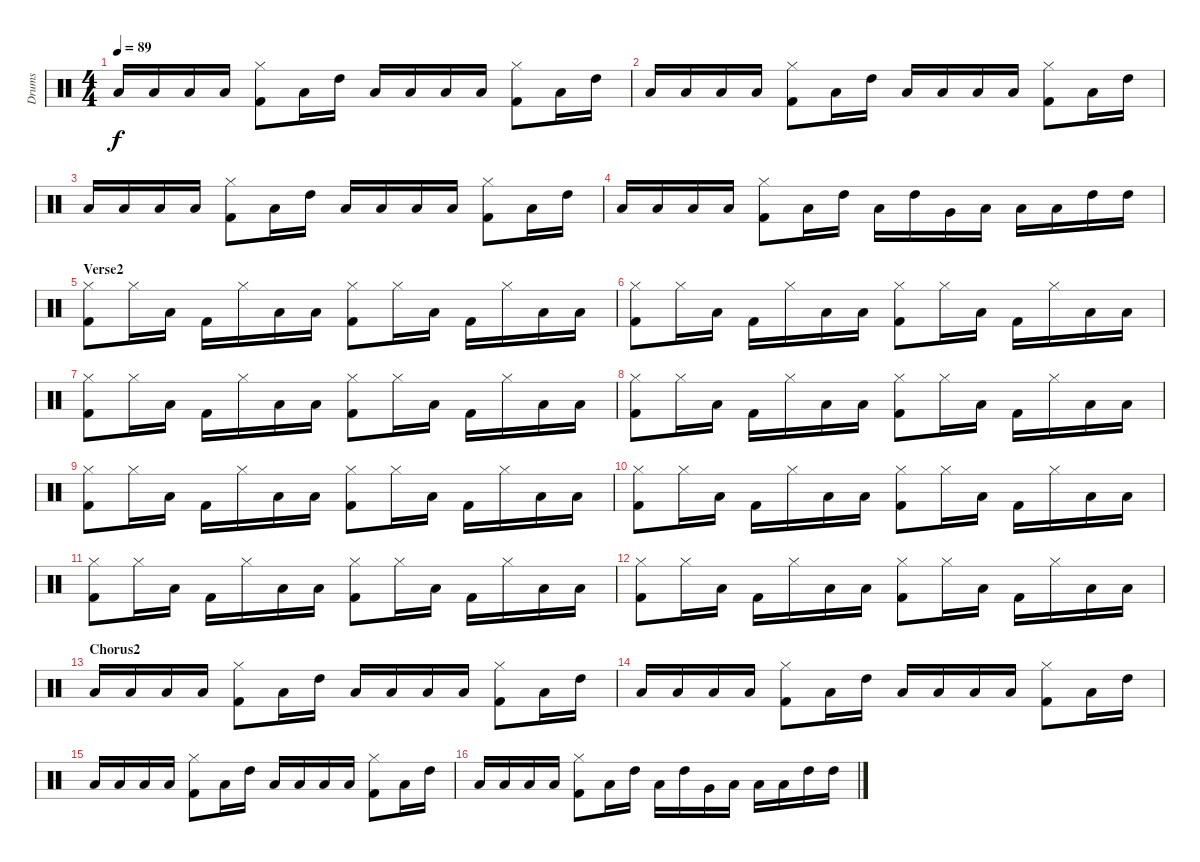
\track ("Drums" "Drums") {instrument percussion}
\staff {score}
\articulation defaults
\ts (4 4)
\tempo 89
\clef neutral
\ks c "Low Tom (hit)".16{dy f} "Low Tom (hit)".16 "Low Tom (hit)".16 "Low Tom (hit)".16
("Hi-Hat (closed)" "Kick (hit) 2").8 "Low Tom (hit)".16 "High Tom (hit)".16 "Low Tom (hit)".16 "Low Tom (hit)".16 "Low Tom (hit)".16 "Low Tom (hit)".16 ("Hi-Hat (closed)" "Kick (hit) 2").8 "Low Tom (hit)".16 "High Tom (hit)".16 |
"Low Tom (hit)".16 "Low Tom (hit)".16 "Low Tom (hit)".16 "Low Tom (hit)".16 ("Hi-Hat (closed)" "Kick (hit) 2").8 "Low Tom (hit)".16 "High Tom (hit)".16 "Low Tom (hit)".16 "Low Tom (hit)".16 "Low Tom (hit)".16 "Low Tom (hit)".16 ("Hi-Hat (closed)" "Kick (hit) 2").8 "Low Tom (hit)".16 "High Tom (hit)".16 |
"Low Tom (hit)".16 "Low Tom (hit)".16 "Low Tom (hit)".16 "Low Tom (hit)".16 ("Hi-Hat (closed)" "Kick (hit) 2").8 "Low Tom (hit)".16 "High Tom (hit)".16 "Low Tom (hit)".16 "Low Tom (hit)".16 "Low Tom (hit)".16 "Low Tom (hit)".16 ("Hi-Hat (closed)" "Kick (hit) 2").8 "Low Tom (hit)".16 "High Tom (hit)".16 |
"Low Tom (hit)".16 "Low Tom (hit)".16 "Low Tom (hit)".16 "Low Tom (hit)".16 ("Hi-Hat (closed)" "Kick (hit) 2").8 "Low Tom (hit)".16 "High Tom (hit)".16 "Low Tom (hit)".16 "High Tom (hit)".16 "Very Low Tom (hit)".16 "Low Floor Tom (hit)".16 "Low Tom (hit)".16 "Low Tom (hit)".16 "High Tom (hit)".16 "High Tom (hit)".16 |
\section ("" "Verse2")
("Hi-Hat (closed)" "Kick (hit) 2").8 "Hi-Hat (closed)".16 "Low Tom (hit)".16 "Kick (hit) 2".16 "Hi-Hat (closed)".16 "Low Tom (hit)".16 "Low Tom (hit)".16 ("Hi-Hat (closed)" "Kick (hit) 2").8 "Hi-Hat (closed)".16 "Low Tom (hit)".16 "Kick (hit) 2".16 "Hi-Hat (closed)".16 "Low Tom (hit)".16 "Low Tom (hit)".16 |
("Hi-Hat (closed)" "Kick (hit) 2").8 "Hi-Hat (closed)".16 "Low Tom (hit)".16 "Kick (hit) 2".16 "Hi-Hat (closed)".16 "Low Tom (hit)".16 "Low Tom (hit)".16 ("Hi-Hat (closed)" "Kick (hit) 2").8 "Hi-Hat (closed)".16 "Low Tom (hit)".16 "Kick (hit) 2".16 "Hi-Hat (closed)".16 "Low Tom (hit)".16 "Low Tom (hit)".16 |
("Hi-Hat (closed)" "Kick (hit) 2").8 "Hi-Hat (closed)".16 "Low Tom (hit)".16 "Kick (hit) 2".16 "Hi-Hat (closed)".16 "Low Tom (hit)".16 "Low Tom (hit)".16 ("Hi-Hat (closed)" "Kick (hit) 2").8 "Hi-Hat (closed)".16 "Low Tom (hit)".16 "Kick (hit) 2".16 "Hi-Hat (closed)".16 "Low Tom (hit)".16 "Low Tom (hit)".16 |
("Hi-Hat (closed)" "Kick (hit) 2").8 "Hi-Hat (closed)".16 "Low Tom (hit)".16 "Kick (hit) 2".16 "Hi-Hat (closed)".16 "Low Tom (hit)".16 "Low Tom (hit)".16 ("Hi-Hat (closed)" "Kick (hit) 2").8 "Hi-Hat (closed)".16 "Low Tom (hit)".16 "Kick (hit) 2".16 "Hi-Hat (closed)".16 "Low Tom (hit)".16 "Low Tom (hit)".16 |
("Hi-Hat (closed)" "Kick (hit) 2").8 "Hi-Hat (closed)".16 "Low Tom (hit)".16 "Kick (hit) 2".16 "Hi-Hat (closed)".16 "Low Tom (hit)".16 "Low Tom (hit)".16 ("Hi-Hat (closed)" "Kick (hit) 2").8 "Hi-Hat (closed)".16 "Low Tom (hit)".16 "Kick (hit) 2".16 "Hi-Hat (closed)".16 "Low Tom (hit)".16 "Low Tom (hit)".16 |
("Hi-Hat (closed)" "Kick (hit) 2").8 "Hi-Hat (closed)".16 "Low Tom (hit)".16 "Kick (hit) 2".16 "Hi-Hat (closed)".16 "Low Tom (hit)".16 "Low Tom (hit)".16 ("Hi-Hat (closed)" "Kick (hit) 2").8 "Hi-Hat (closed)".16 "Low Tom (hit)".16 "Kick (hit) 2".16 "Hi-Hat (closed)".16 "Low Tom (hit)".16 "Low Tom (hit)".16 |
("Hi-Hat (closed)" "Kick (hit) 2").8 "Hi-Hat (closed)".16 "Low Tom (hit)".16 "Kick (hit) 2".16 "Hi-Hat (closed)".16 "Low Tom (hit)".16 "Low Tom (hit)".16 ("Hi-Hat (closed)" "Kick (hit) 2").8 "Hi-Hat (closed)".16 "Low Tom (hit)".16 "Kick (hit) 2".16 "Hi-Hat (closed)".16 "Low Tom (hit)".16 "Low Tom (hit)".16 |
("Hi-Hat (closed)" "Kick (hit) 2").8 "Hi-Hat (closed)".16 "Low Tom (hit)".16 "Kick (hit) 2".16 "Hi-Hat (closed)".16 "Low Tom (hit)".16 "Low Tom (hit)".16 ("Hi-Hat (closed)" "Kick (hit) 2").8 "Hi-Hat (closed)".16 "Low Tom (hit)".16 "Kick (hit) 2".16 "Hi-Hat (closed)".16 "Low Tom (hit)".16 "Low Tom (hit)".16 |
\section ("" "Chorus2")
"Low Tom (hit)".16 "Low Tom (hit)".16 "Low Tom (hit)".16 "Low Tom (hit)".16 ("Hi-Hat (closed)" "Kick (hit) 2").8 "Low Tom (hit)".16 "High Tom (hit)".16 "Low Tom (hit)".16 "Low Tom (hit)".16 "Low Tom (hit)".16 "Low Tom (hit)".16 ("Hi-Hat (closed)" "Kick (hit) 2").8 "Low Tom (hit)".16 "High Tom (hit)".16 |
"Low Tom (hit)".16 "Low Tom (hit)".16 "Low Tom (hit)".16 "Low Tom (hit)".16 ("Hi-Hat (closed)" "Kick (hit) 2").8 "Low Tom (hit)".16 "High Tom (hit)".16 "Low Tom (hit)".16 "Low Tom (hit)".16 "Low Tom (hit)".16 "Low Tom (hit)".16 ("Hi-Hat (closed)" "Kick (hit) 2").8 "Low Tom (hit)".16 "High Tom (hit)".16 |
"Low Tom (hit)".16 "Low Tom (hit)".16 "Low Tom (hit)".16 "Low Tom (hit)".16 ("Hi-Hat (closed)" "Kick (hit) 2").8 "Low Tom (hit)".16 "High Tom (hit)".16 "Low Tom (hit)".16 "Low Tom (hit)".16 "Low Tom (hit)".16 "Low Tom (hit)".16 ("Hi-Hat (closed)" "Kick (hit) 2").8 "Low Tom (hit)".16 "High Tom (hit)".16 |
"Low Tom (hit)".16 "Low Tom (hit)".16 "Low Tom (hit)".16 "Low Tom (hit)".16 ("Hi-Hat (closed)" "Kick (hit) 2").8 "Low Tom (hit)".16 "High Tom (hit)".16 "Low Tom (hit)".16 "High Tom (hit)".16 "Very Low Tom (hit)".16 "Low Floor Tom (hit)".16 "Low Tom (hit)".16 "Low Tom (hit)".16 "High Tom (hit)".16 "High Tom (hit)".16
